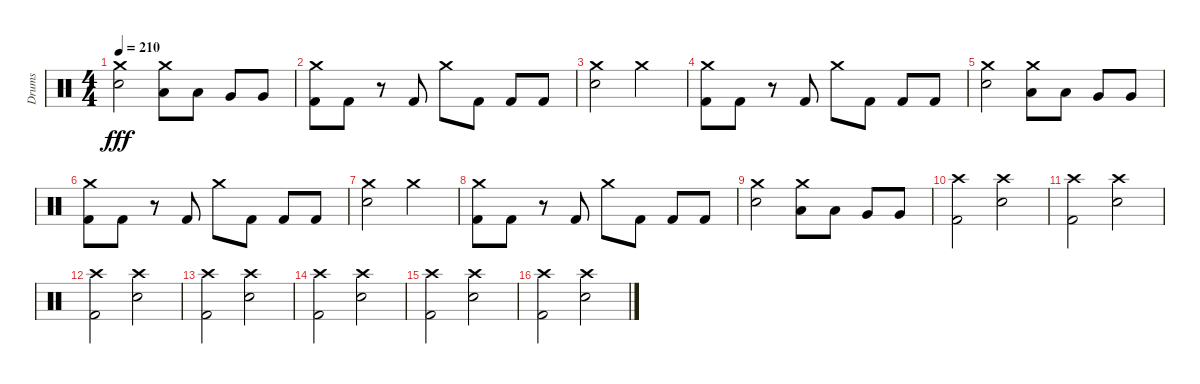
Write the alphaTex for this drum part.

\track ("Drums" "Drums") {instrument percussion}
\staff {score}
\articulation defaults
\ts (4 4)
\tempo 210
\clef neutral
\ks c
("Crash medium (hit)" "Electric Snare (hit)").2{dy fff} ("Crash medium (hit)" "Low Tom (hit)").8 "Low Tom (hit)".8 "Very Low Tom (hit)".8 "Very Low Tom (hit)".8 |
("Crash medium (hit)" "Kick (hit) 2").8 "Kick (hit) 2".8 r.8 "Kick (hit) 2".8 "Crash medium (hit)".8 "Kick (hit) 2".8 "Kick (hit) 2".8 "Kick (hit) 2".8 |
("Crash medium (hit)" "Electric Snare (hit)").2 "Crash medium (hit)".2 |
("Crash medium (hit)" "Kick (hit) 2").8 "Kick (hit) 2".8 r.8 "Kick (hit) 2".8 "Crash medium (hit)".8 "Kick (hit) 2".8 "Kick (hit) 2".8 "Kick (hit) 2".8 |
("Crash medium (hit)" "Electric Snare (hit)").2 ("Crash medium (hit)" "Low Tom (hit)").8 "Low Tom (hit)".8 "Very Low Tom (hit)".8 "Very Low Tom (hit)".8 |
("Crash medium (hit)" "Kick (hit) 2").8 "Kick (hit) 2".8 r.8 "Kick (hit) 2".8 "Crash medium (hit)".8 "Kick (hit) 2".8 "Kick (hit) 2".8 "Kick (hit) 2".8 |
("Crash medium (hit)" "Electric Snare (hit)").2 "Crash medium (hit)".2 |
("Crash medium (hit)" "Kick (hit) 2").8 "Kick (hit) 2".8 r.8 "Kick (hit) 2".8 "Crash medium (hit)".8 "Kick (hit) 2".8 "Kick (hit) 2".8 "Kick (hit) 2".8 |
("Crash medium (hit)" "Electric Snare (hit)").2 ("Crash medium (hit)" "Low Tom (hit)").8 "Low Tom (hit)".8 "Very Low Tom (hit)".8 "Very Low Tom (hit)".8 |
("Crash high (hit)" "Kick (hit) 2").2 ("Crash high (hit)" "Electric Snare (hit)").2 |
("Crash high (hit)" "Kick (hit) 2").2 ("Crash high (hit)" "Electric Snare (hit)").2 |
("Crash high (hit)" "Kick (hit) 2").2 ("Crash high (hit)" "Electric Snare (hit)").2 |
("Crash high (hit)" "Kick (hit) 2").2 ("Crash high (hit)" "Electric Snare (hit)").2 |
("Crash high (hit)" "Kick (hit) 2").2 ("Crash high (hit)" "Electric Snare (hit)").2 |
("Crash high (hit)" "Kick (hit) 2").2 ("Crash high (hit)" "Electric Snare (hit)").2 |
("Crash high (hit)" "Kick (hit) 2").2 ("Crash high (hit)" "Electric Snare (hit)").2
